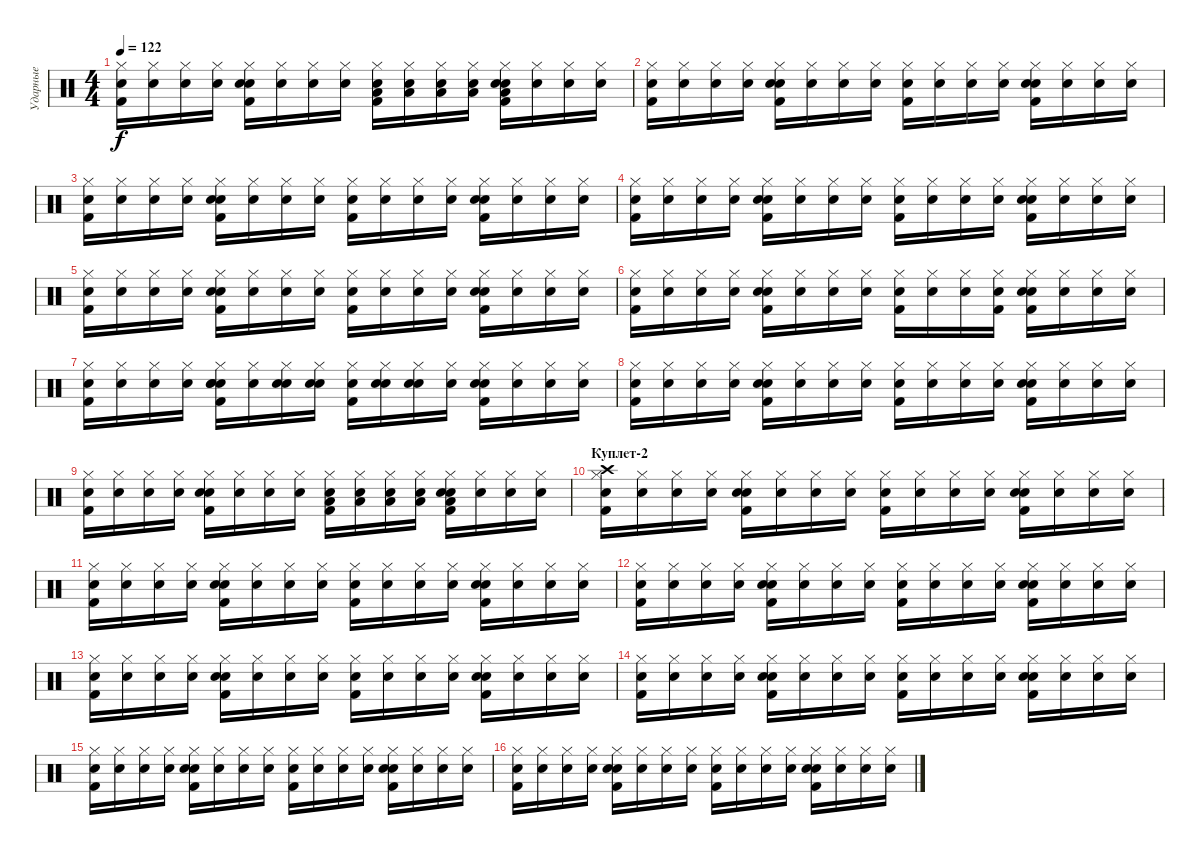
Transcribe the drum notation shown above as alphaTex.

\track ("Ударные" "Ударные") {instrument percussion}
\staff {score}
\articulation defaults
\ts (4 4)
\tempo 122
\clef neutral
\ks c
("Snare (hit)" "Kick (hit) 2" "Hi-Hat (closed)").16{dy f} ("Snare (hit)" "Hi-Hat (closed)").16 ("Snare (hit)" "Hi-Hat (closed)").16 ("Snare (hit)" "Hi-Hat (closed)").16 ("Snare (hit)" "Kick (hit) 2" "Snare (hit) 2" "Hi-Hat (closed)").16 ("Snare (hit)" "Hi-Hat (closed)").16 ("Snare (hit)" "Hi-Hat (closed)").16 ("Snare (hit)" "Hi-Hat (closed)").16 ("Snare (hit)" "Low Tom (hit)" "Kick (hit) 2" "Hi-Hat (closed)").16 ("Snare (hit)" "Low Tom (hit)" "Hi-Hat (closed)").16 ("Snare (hit)" "Low Tom (hit)" "Hi-Hat (closed)").16 ("Snare (hit)" "Low Tom (hit)" "Hi-Hat (closed)").16 ("Snare (hit)" "Low Tom (hit)" "Kick (hit) 2" "Snare (hit) 2" "Hi-Hat (closed)").16 ("Snare (hit)" "Hi-Hat (closed)").16 ("Snare (hit)" "Hi-Hat (closed)").16 ("Snare (hit)" "Hi-Hat (closed)").16 |
("Snare (hit)" "Kick (hit) 2" "Hi-Hat (closed)").16 ("Snare (hit)" "Hi-Hat (closed)").16 ("Snare (hit)" "Hi-Hat (closed)").16 ("Snare (hit)" "Hi-Hat (closed)").16 ("Snare (hit)" "Kick (hit) 2" "Snare (hit) 2" "Hi-Hat (closed)").16 ("Snare (hit)" "Hi-Hat (closed)").16 ("Snare (hit)" "Hi-Hat (closed)").16 ("Snare (hit)" "Hi-Hat (closed)").16 ("Snare (hit)" "Kick (hit) 2" "Hi-Hat (closed)").16 ("Snare (hit)" "Hi-Hat (closed)").16 ("Snare (hit)" "Hi-Hat (closed)").16 ("Snare (hit)" "Hi-Hat (closed)").16 ("Snare (hit)" "Kick (hit) 2" "Snare (hit) 2" "Hi-Hat (closed)").16 ("Snare (hit)" "Hi-Hat (closed)").16 ("Snare (hit)" "Hi-Hat (closed)").16 ("Snare (hit)" "Hi-Hat (closed)").16 |
("Snare (hit)" "Kick (hit) 2" "Hi-Hat (closed)").16 ("Snare (hit)" "Hi-Hat (closed)").16 ("Snare (hit)" "Hi-Hat (closed)").16 ("Snare (hit)" "Hi-Hat (closed)").16 ("Snare (hit)" "Kick (hit) 2" "Snare (hit) 2" "Hi-Hat (closed)").16 ("Snare (hit)" "Hi-Hat (closed)").16 ("Snare (hit)" "Hi-Hat (closed)").16 ("Snare (hit)" "Hi-Hat (closed)").16 ("Snare (hit)" "Kick (hit) 2" "Hi-Hat (closed)").16 ("Snare (hit)" "Hi-Hat (closed)").16 ("Snare (hit)" "Hi-Hat (closed)").16 ("Snare (hit)" "Hi-Hat (closed)").16 ("Snare (hit)" "Kick (hit) 2" "Snare (hit) 2" "Hi-Hat (closed)").16 ("Snare (hit)" "Hi-Hat (closed)").16 ("Snare (hit)" "Hi-Hat (closed)").16 ("Snare (hit)" "Hi-Hat (closed)").16 |
("Snare (hit)" "Kick (hit) 2" "Hi-Hat (closed)").16 ("Snare (hit)" "Hi-Hat (closed)").16 ("Snare (hit)" "Hi-Hat (closed)").16 ("Snare (hit)" "Hi-Hat (closed)").16 ("Snare (hit)" "Kick (hit) 2" "Snare (hit) 2" "Hi-Hat (closed)").16 ("Snare (hit)" "Hi-Hat (closed)").16 ("Snare (hit)" "Hi-Hat (closed)").16 ("Snare (hit)" "Hi-Hat (closed)").16 ("Snare (hit)" "Kick (hit) 2" "Hi-Hat (closed)").16 ("Snare (hit)" "Hi-Hat (closed)").16 ("Snare (hit)" "Hi-Hat (closed)").16 ("Snare (hit)" "Hi-Hat (closed)").16 ("Snare (hit)" "Kick (hit) 2" "Snare (hit) 2" "Hi-Hat (closed)").16 ("Snare (hit)" "Hi-Hat (closed)").16 ("Snare (hit)" "Hi-Hat (closed)").16 ("Snare (hit)" "Hi-Hat (closed)").16 |
("Snare (hit)" "Kick (hit) 2" "Hi-Hat (closed)").16 ("Snare (hit)" "Hi-Hat (closed)").16 ("Snare (hit)" "Hi-Hat (closed)").16 ("Snare (hit)" "Hi-Hat (closed)").16 ("Snare (hit)" "Kick (hit) 2" "Snare (hit) 2" "Hi-Hat (closed)").16 ("Snare (hit)" "Hi-Hat (closed)").16 ("Snare (hit)" "Hi-Hat (closed)").16 ("Snare (hit)" "Hi-Hat (closed)").16 ("Snare (hit)" "Kick (hit) 2" "Hi-Hat (closed)").16 ("Snare (hit)" "Hi-Hat (closed)").16 ("Snare (hit)" "Hi-Hat (closed)").16 ("Snare (hit)" "Hi-Hat (closed)").16 ("Snare (hit)" "Kick (hit) 2" "Snare (hit) 2" "Hi-Hat (closed)").16 ("Snare (hit)" "Hi-Hat (closed)").16 ("Snare (hit)" "Hi-Hat (closed)").16 ("Snare (hit)" "Hi-Hat (closed)").16 |
("Snare (hit)" "Kick (hit) 2" "Hi-Hat (closed)").16 ("Snare (hit)" "Hi-Hat (closed)").16 ("Snare (hit)" "Hi-Hat (closed)").16 ("Snare (hit)" "Hi-Hat (closed)").16 ("Snare (hit)" "Kick (hit) 2" "Snare (hit) 2" "Hi-Hat (closed)").16 ("Snare (hit)" "Hi-Hat (closed)").16 ("Snare (hit)" "Hi-Hat (closed)").16 ("Snare (hit)" "Hi-Hat (closed)").16 ("Snare (hit)" "Kick (hit) 2" "Hi-Hat (closed)").16 ("Snare (hit)" "Hi-Hat (closed)").16 ("Snare (hit)" "Hi-Hat (closed)").16 ("Snare (hit)" "Kick (hit) 2" "Hi-Hat (closed)").16 ("Snare (hit)" "Kick (hit) 2" "Snare (hit) 2" "Hi-Hat (closed)").16 ("Snare (hit)" "Hi-Hat (closed)").16 ("Snare (hit)" "Hi-Hat (closed)").16 ("Snare (hit)" "Hi-Hat (closed)").16 |
("Snare (hit)" "Kick (hit) 2" "Hi-Hat (closed)").16 ("Snare (hit)" "Hi-Hat (closed)").16 ("Snare (hit)" "Hi-Hat (closed)").16 ("Snare (hit)" "Hi-Hat (closed)").16 ("Snare (hit)" "Hand Clap (hit)" "Kick (hit) 2" "Snare (hit) 2" "Hi-Hat (closed)").16 ("Snare (hit)" "Hi-Hat (closed)").16 ("Snare (hit)" "Hand Clap (hit)" "Hi-Hat (closed)").16 ("Snare (hit)" "Hand Clap (hit)" "Hi-Hat (closed)").16 ("Snare (hit)" "Kick (hit) 2" "Hi-Hat (closed)").16 ("Snare (hit)" "Hand Clap (hit)" "Hi-Hat (closed)").16 ("Snare (hit)" "Hand Clap (hit)" "Hi-Hat (closed)").16 ("Snare (hit)" "Hi-Hat (closed)").16 ("Snare (hit)" "Kick (hit) 2" "Snare (hit) 2" "Hi-Hat (closed)").16 ("Snare (hit)" "Hi-Hat (closed)").16 ("Snare (hit)" "Hi-Hat (closed)").16 ("Snare (hit)" "Hi-Hat (closed)").16 |
("Snare (hit)" "Kick (hit) 2" "Hi-Hat (closed)").16 ("Snare (hit)" "Hi-Hat (closed)").16 ("Snare (hit)" "Hi-Hat (closed)").16 ("Snare (hit)" "Hi-Hat (closed)").16 ("Snare (hit)" "Kick (hit) 2" "Snare (hit) 2" "Hi-Hat (closed)").16 ("Snare (hit)" "Hi-Hat (closed)").16 ("Snare (hit)" "Hi-Hat (closed)").16 ("Snare (hit)" "Hi-Hat (closed)").16 ("Snare (hit)" "Kick (hit) 2" "Hi-Hat (closed)").16 ("Snare (hit)" "Hi-Hat (closed)").16 ("Snare (hit)" "Hi-Hat (closed)").16 ("Snare (hit)" "Hi-Hat (closed)").16 ("Snare (hit)" "Kick (hit) 2" "Snare (hit) 2" "Hi-Hat (closed)").16 ("Snare (hit)" "Hi-Hat (closed)").16 ("Snare (hit)" "Hi-Hat (closed)").16 ("Snare (hit)" "Hi-Hat (closed)").16 |
("Snare (hit)" "Kick (hit) 2" "Hi-Hat (closed)").16 ("Snare (hit)" "Hi-Hat (closed)").16 ("Snare (hit)" "Hi-Hat (closed)").16 ("Snare (hit)" "Hi-Hat (closed)").16 ("Snare (hit)" "Kick (hit) 2" "Snare (hit) 2" "Hi-Hat (closed)").16 ("Snare (hit)" "Hi-Hat (closed)").16 ("Snare (hit)" "Hi-Hat (closed)").16 ("Snare (hit)" "Hi-Hat (closed)").16 ("Snare (hit)" "Low Tom (hit)" "Kick (hit) 2" "Hi-Hat (closed)").16 ("Snare (hit)" "Low Tom (hit)" "Hi-Hat (closed)").16 ("Snare (hit)" "Low Tom (hit)" "Hi-Hat (closed)").16 ("Snare (hit)" "Low Tom (hit)" "Hi-Hat (closed)").16 ("Snare (hit)" "Low Tom (hit)" "Kick (hit) 2" "Snare (hit) 2" "Hi-Hat (closed)").16 ("Snare (hit)" "Hi-Hat (closed)").16 ("Snare (hit)" "Hi-Hat (closed)").16 ("Snare (hit)" "Hi-Hat (closed)").16 |
\section ("" "Куплет-2")
("Snare (hit)" "Crash high (hit)" "Kick (hit) 2" "Hi-Hat (closed)").16 ("Snare (hit)" "Hi-Hat (closed)").16 ("Snare (hit)" "Hi-Hat (closed)").16 ("Snare (hit)" "Hi-Hat (closed)").16 ("Snare (hit)" "Kick (hit) 2" "Snare (hit) 2" "Hi-Hat (closed)").16 ("Snare (hit)" "Hi-Hat (closed)").16 ("Snare (hit)" "Hi-Hat (closed)").16 ("Snare (hit)" "Hi-Hat (closed)").16 ("Snare (hit)" "Kick (hit) 2" "Hi-Hat (closed)").16 ("Snare (hit)" "Hi-Hat (closed)").16 ("Snare (hit)" "Hi-Hat (closed)").16 ("Snare (hit)" "Hi-Hat (closed)").16 ("Snare (hit)" "Kick (hit) 2" "Snare (hit) 2" "Hi-Hat (closed)").16 ("Snare (hit)" "Hi-Hat (closed)").16 ("Snare (hit)" "Hi-Hat (closed)").16 ("Snare (hit)" "Hi-Hat (closed)").16 |
("Snare (hit)" "Kick (hit) 2" "Hi-Hat (closed)").16 ("Snare (hit)" "Hi-Hat (closed)").16 ("Snare (hit)" "Hi-Hat (closed)").16 ("Snare (hit)" "Hi-Hat (closed)").16 ("Snare (hit)" "Kick (hit) 2" "Snare (hit) 2" "Hi-Hat (closed)").16 ("Snare (hit)" "Hi-Hat (closed)").16 ("Snare (hit)" "Hi-Hat (closed)").16 ("Snare (hit)" "Hi-Hat (closed)").16 ("Snare (hit)" "Kick (hit) 2" "Hi-Hat (closed)").16 ("Snare (hit)" "Hi-Hat (closed)").16 ("Snare (hit)" "Hi-Hat (closed)").16 ("Snare (hit)" "Hi-Hat (closed)").16 ("Snare (hit)" "Kick (hit) 2" "Snare (hit) 2" "Hi-Hat (closed)").16 ("Snare (hit)" "Hi-Hat (closed)").16 ("Snare (hit)" "Hi-Hat (closed)").16 ("Snare (hit)" "Hi-Hat (closed)").16 |
("Snare (hit)" "Kick (hit) 2" "Hi-Hat (closed)").16 ("Snare (hit)" "Hi-Hat (closed)").16 ("Snare (hit)" "Hi-Hat (closed)").16 ("Snare (hit)" "Hi-Hat (closed)").16 ("Snare (hit)" "Kick (hit) 2" "Snare (hit) 2" "Hi-Hat (closed)").16 ("Snare (hit)" "Hi-Hat (closed)").16 ("Snare (hit)" "Hi-Hat (closed)").16 ("Snare (hit)" "Hi-Hat (closed)").16 ("Snare (hit)" "Kick (hit) 2" "Hi-Hat (closed)").16 ("Snare (hit)" "Hi-Hat (closed)").16 ("Snare (hit)" "Hi-Hat (closed)").16 ("Snare (hit)" "Hi-Hat (closed)").16 ("Snare (hit)" "Kick (hit) 2" "Snare (hit) 2" "Hi-Hat (closed)").16 ("Snare (hit)" "Hi-Hat (closed)").16 ("Snare (hit)" "Hi-Hat (closed)").16 ("Snare (hit)" "Hi-Hat (closed)").16 |
("Snare (hit)" "Kick (hit) 2" "Hi-Hat (closed)").16 ("Snare (hit)" "Hi-Hat (closed)").16 ("Snare (hit)" "Hi-Hat (closed)").16 ("Snare (hit)" "Hi-Hat (closed)").16 ("Snare (hit)" "Kick (hit) 2" "Snare (hit) 2" "Hi-Hat (closed)").16 ("Snare (hit)" "Hi-Hat (closed)").16 ("Snare (hit)" "Hi-Hat (closed)").16 ("Snare (hit)" "Hi-Hat (closed)").16 ("Snare (hit)" "Kick (hit) 2" "Hi-Hat (closed)").16 ("Snare (hit)" "Hi-Hat (closed)").16 ("Snare (hit)" "Hi-Hat (closed)").16 ("Snare (hit)" "Hi-Hat (closed)").16 ("Snare (hit)" "Kick (hit) 2" "Snare (hit) 2" "Hi-Hat (closed)").16 ("Snare (hit)" "Hi-Hat (closed)").16 ("Snare (hit)" "Hi-Hat (closed)").16 ("Snare (hit)" "Hi-Hat (closed)").16 |
("Snare (hit)" "Kick (hit) 2" "Hi-Hat (closed)").16 ("Snare (hit)" "Hi-Hat (closed)").16 ("Snare (hit)" "Hi-Hat (closed)").16 ("Snare (hit)" "Hi-Hat (closed)").16 ("Snare (hit)" "Kick (hit) 2" "Snare (hit) 2" "Hi-Hat (closed)").16 ("Snare (hit)" "Hi-Hat (closed)").16 ("Snare (hit)" "Hi-Hat (closed)").16 ("Snare (hit)" "Hi-Hat (closed)").16 ("Snare (hit)" "Kick (hit) 2" "Hi-Hat (closed)").16 ("Snare (hit)" "Hi-Hat (closed)").16 ("Snare (hit)" "Hi-Hat (closed)").16 ("Snare (hit)" "Hi-Hat (closed)").16 ("Snare (hit)" "Kick (hit) 2" "Snare (hit) 2" "Hi-Hat (closed)").16 ("Snare (hit)" "Hi-Hat (closed)").16 ("Snare (hit)" "Hi-Hat (closed)").16 ("Snare (hit)" "Hi-Hat (closed)").16 |
("Snare (hit)" "Kick (hit) 2" "Hi-Hat (closed)").16 ("Snare (hit)" "Hi-Hat (closed)").16 ("Snare (hit)" "Hi-Hat (closed)").16 ("Snare (hit)" "Hi-Hat (closed)").16 ("Snare (hit)" "Kick (hit) 2" "Snare (hit) 2" "Hi-Hat (closed)").16 ("Snare (hit)" "Hi-Hat (closed)").16 ("Snare (hit)" "Hi-Hat (closed)").16 ("Snare (hit)" "Hi-Hat (closed)").16 ("Snare (hit)" "Kick (hit) 2" "Hi-Hat (closed)").16 ("Snare (hit)" "Hi-Hat (closed)").16 ("Snare (hit)" "Hi-Hat (closed)").16 ("Snare (hit)" "Hi-Hat (closed)").16 ("Snare (hit)" "Kick (hit) 2" "Snare (hit) 2" "Hi-Hat (closed)").16 ("Snare (hit)" "Hi-Hat (closed)").16 ("Snare (hit)" "Hi-Hat (closed)").16 ("Snare (hit)" "Hi-Hat (closed)").16 |
("Snare (hit)" "Kick (hit) 2" "Hi-Hat (closed)").16 ("Snare (hit)" "Hi-Hat (closed)").16 ("Snare (hit)" "Hi-Hat (closed)").16 ("Snare (hit)" "Hi-Hat (closed)").16 ("Snare (hit)" "Kick (hit) 2" "Snare (hit) 2" "Hi-Hat (closed)").16 ("Snare (hit)" "Hi-Hat (closed)").16 ("Snare (hit)" "Hi-Hat (closed)").16 ("Snare (hit)" "Hi-Hat (closed)").16 ("Snare (hit)" "Kick (hit) 2" "Hi-Hat (closed)").16 ("Snare (hit)" "Hi-Hat (closed)").16 ("Snare (hit)" "Hi-Hat (closed)").16 ("Snare (hit)" "Hi-Hat (closed)").16 ("Snare (hit)" "Kick (hit) 2" "Snare (hit) 2" "Hi-Hat (closed)").16 ("Snare (hit)" "Hi-Hat (closed)").16 ("Snare (hit)" "Hi-Hat (closed)").16 ("Snare (hit)" "Hi-Hat (closed)").16
